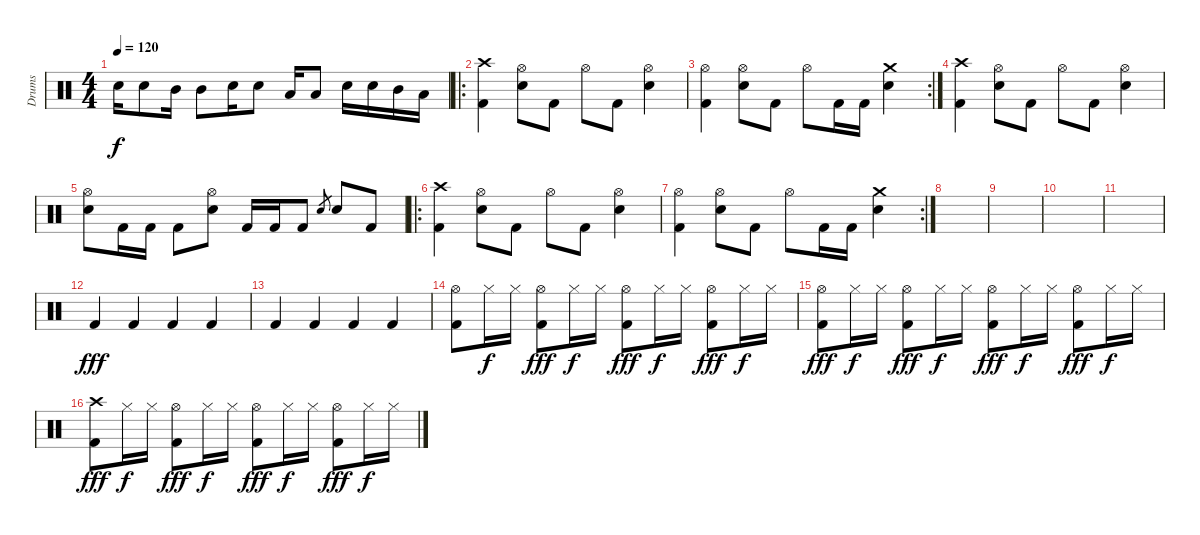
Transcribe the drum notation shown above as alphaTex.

\track ("Drums" "Drums") {instrument percussion}
\staff {score}
\articulation defaults
\ts (4 4)
\tempo 120
\clef neutral
\ks c "Snare (hit) 2".16{dy f} "Snare (hit) 2".8 "Mid Tom (hit)".16 "Mid Tom (hit)".8 "Snare (hit) 2".16 "Snare (hit) 2".8 "Low Tom (hit)".16 "Low Tom (hit)".8 "Snare (hit) 2".16 "Snare (hit) 2".16 "Mid Tom (hit)".16 "Low Tom (hit)".16
|
\ro
("Kick (hit) 2" "Crash high (hit)").4 ("Snare (hit) 2" "Hi-Hat (open)").8 "Kick (hit) 2".8 "Hi-Hat (open)".8 "Kick (hit) 2".8 ("Hi-Hat (open)" "Snare (hit) 2").4 |
\rc 2
("Kick (hit) 2" "Hi-Hat (open)").4 ("Snare (hit) 2" "Hi-Hat (open)").8 "Kick (hit) 2".8 "Hi-Hat (open)".8 "Kick (hit) 2".16 "Kick (hit) 2".16 ("Crash medium (hit)" "Snare (hit) 2").4 |
("Kick (hit) 2" "Crash high (hit)").4 ("Snare (hit) 2" "Hi-Hat (open)").8 "Kick (hit) 2".8 "Hi-Hat (open)".8 "Kick (hit) 2".8 ("Hi-Hat (open)" "Snare (hit) 2").4 |
("Hi-Hat (open)" "Snare (hit) 2").8 "Kick (hit) 2".16 "Kick (hit) 2".16 "Kick (hit) 2".8 ("Hi-Hat (open)" "Snare (hit) 2").8 "Kick (hit) 2".16 "Kick (hit) 2".16 "Kick (hit) 2".8 "Snare (hit) 2".8{gr} "Snare (hit) 2".8 "Kick (hit) 2".8 |
\ro
("Kick (hit) 2" "Crash high (hit)").4 ("Snare (hit) 2" "Hi-Hat (open)").8 "Kick (hit) 2".8 "Hi-Hat (open)".8 "Kick (hit) 2".8 ("Hi-Hat (open)" "Snare (hit) 2").4 |
\rc 2
("Kick (hit) 2" "Hi-Hat (open)").4 ("Snare (hit) 2" "Hi-Hat (open)").8 "Kick (hit) 2".8 "Hi-Hat (open)".8 "Kick (hit) 2".16 "Kick (hit) 2".16 ("Crash medium (hit)" "Snare (hit) 2").4 |
|
|
|
|
"Kick (hit) 2".4{dy fff} "Kick (hit) 2".4 "Kick (hit) 2".4 "Kick (hit) 2".4 |
"Kick (hit) 2".4 "Kick (hit) 2".4 "Kick (hit) 2".4 "Kick (hit) 2".4 |
("Hi-Hat (open)" "Kick (hit) 2").8 "Hi-Hat (closed)".16{dy f} "Hi-Hat (closed)".16 ("Hi-Hat (open)" "Kick (hit) 2").8{dy fff} "Hi-Hat (closed)".16{dy f} "Hi-Hat (closed)".16 ("Hi-Hat (open)" "Kick (hit) 2").8{dy fff} "Hi-Hat (closed)".16{dy f} "Hi-Hat (closed)".16 ("Hi-Hat (open)" "Kick (hit) 2").8{dy fff} "Hi-Hat (closed)".16{dy f} "Hi-Hat (closed)".16 |
("Hi-Hat (open)" "Kick (hit) 2").8{dy fff} "Hi-Hat (closed)".16{dy f} "Hi-Hat (closed)".16 ("Hi-Hat (open)" "Kick (hit) 2").8{dy fff} "Hi-Hat (closed)".16{dy f} "Hi-Hat (closed)".16 ("Hi-Hat (open)" "Kick (hit) 2").8{dy fff} "Hi-Hat (closed)".16{dy f} "Hi-Hat (closed)".16 ("Hi-Hat (open)" "Kick (hit) 2").8{dy fff} "Hi-Hat (closed)".16{dy f} "Hi-Hat (closed)".16 |
("Crash high (hit)" "Kick (hit) 2").8{dy fff} "Hi-Hat (closed)".16{dy f} "Hi-Hat (closed)".16 ("Hi-Hat (open)" "Kick (hit) 2").8{dy fff} "Hi-Hat (closed)".16{dy f} "Hi-Hat (closed)".16 ("Hi-Hat (open)" "Kick (hit) 2").8{dy fff} "Hi-Hat (closed)".16{dy f} "Hi-Hat (closed)".16 ("Hi-Hat (open)" "Kick (hit) 2").8{dy fff} "Hi-Hat (closed)".16{dy f} "Hi-Hat (closed)".16
